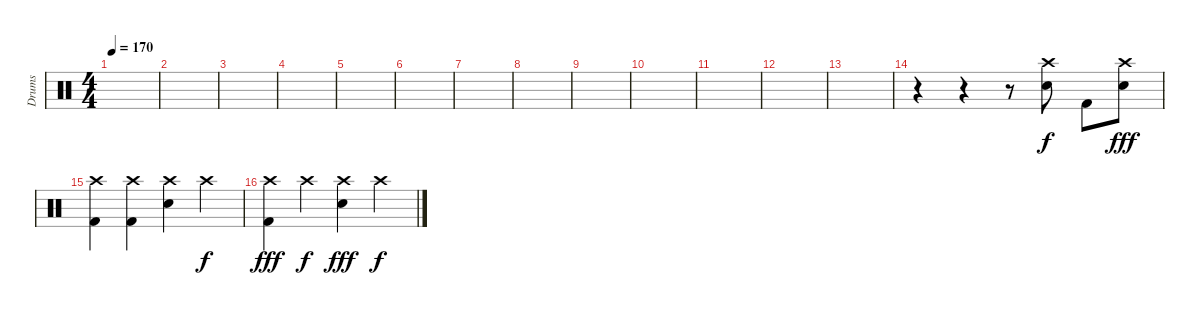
\track ("Drums" "Drums") {instrument percussion}
\staff {score}
\articulation defaults
\ts (4 4)
\tempo 170
\clef neutral
\ks c
|
|
|
|
|
|
|
|
|
|
|
|
|
r.4 r.4 r.8 ("Crash high (hit)" "Electric Snare (hit)").8 "Kick (hit) 2".8{dy f} ("Crash high (hit)" "Electric Snare (hit)").8{dy fff} |
("Crash high (hit)" "Kick (hit) 2").4 ("Crash high (hit)" "Kick (hit) 2").4 ("Crash high (hit)" "Electric Snare (hit)").4 "Crash high (hit)".4{dy f} |
("Crash high (hit)" "Kick (hit) 2").4{dy fff} "Crash high (hit)".4{dy f} ("Crash high (hit)" "Electric Snare (hit)").4{dy fff} "Crash high (hit)".4{dy f}
